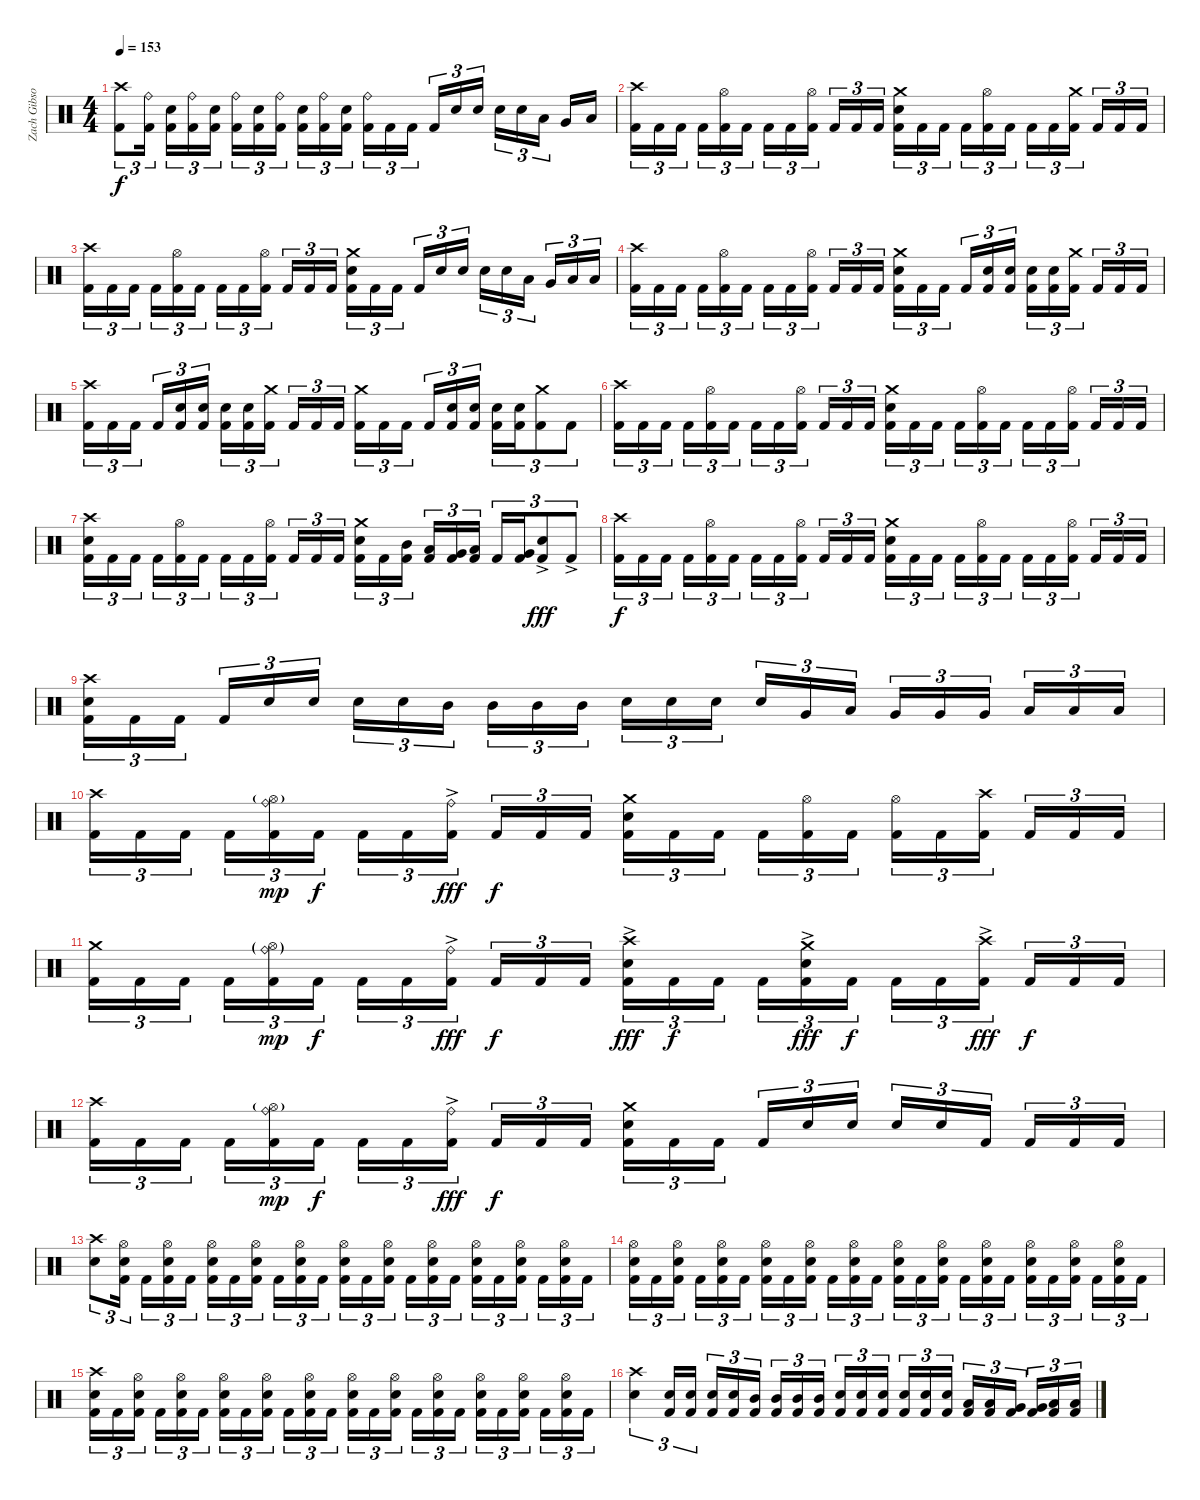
\track ("Zach Gibson (Drums)" "Zach Gibso") {instrument percussion}
\staff {score}
\articulation defaults
\ts (4 4)
\tempo 153
\clef neutral
\ks c
("Crash high (hit)" "Kick (hit) 2").8{tu (3 2) dy f} ("Ride (bell)" "Kick (hit) 2").16{tu (3 2)} ("Snare (hit) 2" "Kick (hit) 2").16{tu (3 2)} ("Ride (bell)" "Kick (hit) 2").16{tu (3 2)} ("Snare (hit) 2" "Kick (hit) 2").16{tu (3 2)} ("Ride (bell)" "Kick (hit) 2").16{tu (3 2)} ("Snare (hit) 2" "Kick (hit) 2").16{tu (3 2)} ("Ride (bell)" "Kick (hit) 2").16{tu (3 2)} ("Snare (hit) 2" "Kick (hit) 2").16{tu (3 2)} ("Ride (bell)" "Kick (hit) 2").16{tu (3 2)} ("Snare (hit) 2" "Kick (hit) 2").16{tu (3 2)} ("Ride (bell)" "Kick (hit) 2").16{tu (3 2)} "Kick (hit) 2".16{tu (3 2)} "Kick (hit) 2".16{tu (3 2)} "Kick (hit) 2".16{tu (3 2)} "Snare (hit) 2".16{tu (3 2)} "Snare (hit) 2".16{tu (3 2)} "Snare (hit) 2".16{tu (3 2)} "Snare (hit) 2".16{tu (3 2)} "Low Tom (hit)".16{tu (3 2)} "Very Low Tom (hit)".16 "Low Floor Tom (hit)".16 |
("Crash high (hit)" "Kick (hit) 2").16{tu (3 2)} "Kick (hit) 2".16{tu (3 2)} "Kick (hit) 2".16{tu (3 2)} "Kick (hit) 2".16{tu (3 2)} ("Hi-Hat (open)" "Kick (hit) 2").16{tu (3 2)} "Kick (hit) 2".16{tu (3 2)} "Kick (hit) 2".16{tu (3 2)} "Kick (hit) 2".16{tu (3 2)} ("Hi-Hat (open)" "Kick (hit) 2").16{tu (3 2)} "Kick (hit) 2".16{tu (3 2)} "Kick (hit) 2".16{tu (3 2)} "Kick (hit) 2".16{tu (3 2)} ("Crash medium (hit)" "Snare (hit) 2" "Kick (hit) 2").16{tu (3 2)} "Kick (hit) 2".16{tu (3 2)} "Kick (hit) 2".16{tu (3 2)} "Kick (hit) 2".16{tu (3 2)} ("Hi-Hat (open)" "Kick (hit) 2").16{tu (3 2)} "Kick (hit) 2".16{tu (3 2)} "Kick (hit) 2".16{tu (3 2)} "Kick (hit) 2".16{tu (3 2)} ("Crash medium (hit)" "Kick (hit) 2").16{tu (3 2)} "Kick (hit) 2".16{tu (3 2)} "Kick (hit) 2".16{tu (3 2)} "Kick (hit) 2".16{tu (3 2)} |
("Crash high (hit)" "Kick (hit) 2").16{tu (3 2)} "Kick (hit) 2".16{tu (3 2)} "Kick (hit) 2".16{tu (3 2)} "Kick (hit) 2".16{tu (3 2)} ("Hi-Hat (open)" "Kick (hit) 2").16{tu (3 2)} "Kick (hit) 2".16{tu (3 2)} "Kick (hit) 2".16{tu (3 2)} "Kick (hit) 2".16{tu (3 2)} ("Hi-Hat (open)" "Kick (hit) 2").16{tu (3 2)} "Kick (hit) 2".16{tu (3 2)} "Kick (hit) 2".16{tu (3 2)} "Kick (hit) 2".16{tu (3 2)} ("Crash medium (hit)" "Snare (hit) 2" "Kick (hit) 2").16{tu (3 2)} "Kick (hit) 2".16{tu (3 2)} "Kick (hit) 2".16{tu (3 2)} "Kick (hit) 2".16{tu (3 2)} "Snare (hit) 2".16{tu (3 2)} "Snare (hit) 2".16{tu (3 2)} "Snare (hit) 2".16{tu (3 2)} "Snare (hit) 2".16{tu (3 2)} "Low Tom (hit)".16{tu (3 2)} "Very Low Tom (hit)".16{tu (3 2)} "Low Floor Tom (hit)".16{tu (3 2)} "Low Floor Tom (hit)".16{tu (3 2)} |
("Crash high (hit)" "Kick (hit) 2").16{tu (3 2)} "Kick (hit) 2".16{tu (3 2)} "Kick (hit) 2".16{tu (3 2)} "Kick (hit) 2".16{tu (3 2)} ("Hi-Hat (open)" "Kick (hit) 2").16{tu (3 2)} "Kick (hit) 2".16{tu (3 2)} "Kick (hit) 2".16{tu (3 2)} "Kick (hit) 2".16{tu (3 2)} ("Hi-Hat (open)" "Kick (hit) 2").16{tu (3 2)} "Kick (hit) 2".16{tu (3 2)} "Kick (hit) 2".16{tu (3 2)} "Kick (hit) 2".16{tu (3 2)} ("Crash medium (hit)" "Snare (hit) 2" "Kick (hit) 2").16{tu (3 2)} "Kick (hit) 2".16{tu (3 2)} "Kick (hit) 2".16{tu (3 2)} "Kick (hit) 2".16{tu (3 2)} ("Snare (hit) 2" "Kick (hit) 2").16{tu (3 2)} ("Snare (hit) 2" "Kick (hit) 2").16{tu (3 2)} ("Snare (hit) 2" "Kick (hit) 2").16{tu (3 2)} ("Snare (hit) 2" "Kick (hit) 2").16{tu (3 2)} ("Crash medium (hit)" "Kick (hit) 2").16{tu (3 2)} "Kick (hit) 2".16{tu (3 2)} "Kick (hit) 2".16{tu (3 2)} "Kick (hit) 2".16{tu (3 2)} |
("Crash high (hit)" "Kick (hit) 2").16{tu (3 2)} "Kick (hit) 2".16{tu (3 2)} "Kick (hit) 2".16{tu (3 2)} "Kick (hit) 2".16{tu (3 2)} ("Snare (hit) 2" "Kick (hit) 2").16{tu (3 2)} ("Snare (hit) 2" "Kick (hit) 2").16{tu (3 2)} ("Snare (hit) 2" "Kick (hit) 2").16{tu (3 2)} ("Snare (hit) 2" "Kick (hit) 2").16{tu (3 2)} ("Crash medium (hit)" "Kick (hit) 2").16{tu (3 2)} "Kick (hit) 2".16{tu (3 2)} "Kick (hit) 2".16{tu (3 2)} "Kick (hit) 2".16{tu (3 2)} ("Crash medium (hit)" "Kick (hit) 2").16{tu (3 2)} "Kick (hit) 2".16{tu (3 2)} "Kick (hit) 2".16{tu (3 2)} "Kick (hit) 2".16{tu (3 2)} ("Snare (hit) 2" "Kick (hit) 2").16{tu (3 2)} ("Snare (hit) 2" "Kick (hit) 2").16{tu (3 2)} ("Snare (hit) 2" "Kick (hit) 2").16{tu (3 2)} ("Snare (hit) 2" "Kick (hit) 2").16{tu (3 2)} ("Crash medium (hit)" "Kick (hit) 2").8{tu (3 2)} "Kick (hit) 2".8{tu (3 2)} |
("Crash high (hit)" "Kick (hit) 2").16{tu (3 2)} "Kick (hit) 2".16{tu (3 2)} "Kick (hit) 2".16{tu (3 2)} "Kick (hit) 2".16{tu (3 2)} ("Hi-Hat (open)" "Kick (hit) 2").16{tu (3 2)} "Kick (hit) 2".16{tu (3 2)} "Kick (hit) 2".16{tu (3 2)} "Kick (hit) 2".16{tu (3 2)} ("Hi-Hat (open)" "Kick (hit) 2").16{tu (3 2)} "Kick (hit) 2".16{tu (3 2)} "Kick (hit) 2".16{tu (3 2)} "Kick (hit) 2".16{tu (3 2)} ("Crash medium (hit)" "Snare (hit) 2" "Kick (hit) 2").16{tu (3 2)} "Kick (hit) 2".16{tu (3 2)} "Kick (hit) 2".16{tu (3 2)} "Kick (hit) 2".16{tu (3 2)} ("Hi-Hat (open)" "Kick (hit) 2").16{tu (3 2)} "Kick (hit) 2".16{tu (3 2)} "Kick (hit) 2".16{tu (3 2)} "Kick (hit) 2".16{tu (3 2)} ("Hi-Hat (open)" "Kick (hit) 2").16{tu (3 2)} "Kick (hit) 2".16{tu (3 2)} "Kick (hit) 2".16{tu (3 2)} "Kick (hit) 2".16{tu (3 2)} |
("Snare (hit) 2" "Crash high (hit)" "Kick (hit) 2").16{tu (3 2)} "Kick (hit) 2".16{tu (3 2)} "Kick (hit) 2".16{tu (3 2)} "Kick (hit) 2".16{tu (3 2)} ("Hi-Hat (open)" "Kick (hit) 2").16{tu (3 2)} "Kick (hit) 2".16{tu (3 2)} "Kick (hit) 2".16{tu (3 2)} "Kick (hit) 2".16{tu (3 2)} ("Hi-Hat (open)" "Kick (hit) 2").16{tu (3 2)} "Kick (hit) 2".16{tu (3 2)} "Kick (hit) 2".16{tu (3 2)} "Kick (hit) 2".16{tu (3 2)} ("Crash medium (hit)" "Snare (hit) 2" "Kick (hit) 2").16{tu (3 2)} "Kick (hit) 2".16{tu (3 2)} ("Mid Tom (hit)" "Kick (hit) 2").16{tu (3 2)} ("Low Tom (hit)" "Kick (hit) 2").16{tu (3 2)} ("Very Low Tom (hit)" "Kick (hit) 2").16{tu (3 2)} ("Low Floor Tom (hit)" "Kick (hit) 2").16{tu (3 2)} "Kick (hit) 2".16{tu (3 2)} ("Very Low Tom (hit)" "Kick (hit) 2").16{tu (3 2)} ("Snare (hit) 2" "Kick (hit) 2"{ac}).8{tu (3 2) dy fff} "Kick (hit) 2"{ac}.8{tu (3 2)} |
("Crash high (hit)" "Kick (hit) 2").16{tu (3 2) dy f} "Kick (hit) 2".16{tu (3 2)} "Kick (hit) 2".16{tu (3 2)} "Kick (hit) 2".16{tu (3 2)} ("Hi-Hat (open)" "Kick (hit) 2").16{tu (3 2)} "Kick (hit) 2".16{tu (3 2)} "Kick (hit) 2".16{tu (3 2)} "Kick (hit) 2".16{tu (3 2)} ("Hi-Hat (open)" "Kick (hit) 2").16{tu (3 2)} "Kick (hit) 2".16{tu (3 2)} "Kick (hit) 2".16{tu (3 2)} "Kick (hit) 2".16{tu (3 2)} ("Crash medium (hit)" "Snare (hit) 2" "Kick (hit) 2").16{tu (3 2)} "Kick (hit) 2".16{tu (3 2)} "Kick (hit) 2".16{tu (3 2)} "Kick (hit) 2".16{tu (3 2)} ("Hi-Hat (open)" "Kick (hit) 2").16{tu (3 2)} "Kick (hit) 2".16{tu (3 2)} "Kick (hit) 2".16{tu (3 2)} "Kick (hit) 2".16{tu (3 2)} ("Hi-Hat (open)" "Kick (hit) 2").16{tu (3 2)} "Kick (hit) 2".16{tu (3 2)} "Kick (hit) 2".16{tu (3 2)} "Kick (hit) 2".16{tu (3 2)} |
("Snare (hit) 2" "Crash high (hit)" "Kick (hit) 2").16{tu (3 2)} "Kick (hit) 2".16{tu (3 2)} "Kick (hit) 2".16{tu (3 2)} "Kick (hit) 2".16{tu (3 2)} "Snare (hit) 2".16{tu (3 2)} "Snare (hit) 2".16{tu (3 2)} "Snare (hit) 2".16{tu (3 2)} "Snare (hit) 2".16{tu (3 2)} "Mid Tom (hit)".16{tu (3 2)} "Mid Tom (hit)".16{tu (3 2)} "Mid Tom (hit)".16{tu (3 2)} "Mid Tom (hit)".16{tu (3 2)} "Snare (hit) 2".16{tu (3 2)} "Snare (hit) 2".16{tu (3 2)} "Snare (hit) 2".16{tu (3 2)} "Snare (hit) 2".16{tu (3 2)} "Very Low Tom (hit)".16{tu (3 2)} "Low Floor Tom (hit)".16{tu (3 2)} "Very Low Tom (hit)".16{tu (3 2)} "Very Low Tom (hit)".16{tu (3 2)} "Very Low Tom (hit)".16{tu (3 2)} "Low Floor Tom (hit)".16{tu (3 2)} "Low Floor Tom (hit)".16{tu (3 2)} "Low Floor Tom (hit)".16{tu (3 2)} |
("Crash high (hit)" "Kick (hit) 2").16{tu (3 2)} "Kick (hit) 2".16{tu (3 2)} "Kick (hit) 2".16{tu (3 2)} "Kick (hit) 2".16{tu (3 2)} ("Ride (bell)" "Hi-Hat (open)"{g} "Kick (hit) 2").16{tu (3 2) dy mp} "Kick (hit) 2".16{tu (3 2) dy f} "Kick (hit) 2".16{tu (3 2)} "Kick (hit) 2".16{tu (3 2)} ("Ride (bell)"{ac} "Kick (hit) 2").16{tu (3 2) dy fff} "Kick (hit) 2".16{tu (3 2) dy f} "Kick (hit) 2".16{tu (3 2)} "Kick (hit) 2".16{tu (3 2)} ("Crash medium (hit)" "Snare (hit) 2" "Kick (hit) 2").16{tu (3 2)} "Kick (hit) 2".16{tu (3 2)} "Kick (hit) 2".16{tu (3 2)} "Kick (hit) 2".16{tu (3 2)} ("Hi-Hat (open)" "Kick (hit) 2").16{tu (3 2)} "Kick (hit) 2".16{tu (3 2)} ("Hi-Hat (open)" "Kick (hit) 2").16{tu (3 2)} "Kick (hit) 2".16{tu (3 2)} ("Crash high (hit)" "Kick (hit) 2").16{tu (3 2)} "Kick (hit) 2".16{tu (3 2)} "Kick (hit) 2".16{tu (3 2)} "Kick (hit) 2".16{tu (3 2)} |
("Crash medium (hit)" "Kick (hit) 2").16{tu (3 2)} "Kick (hit) 2".16{tu (3 2)} "Kick (hit) 2".16{tu (3 2)} "Kick (hit) 2".16{tu (3 2)} ("Ride (bell)"{g} "Hi-Hat (open)"{g} "Kick (hit) 2").16{tu (3 2) dy mp} "Kick (hit) 2".16{tu (3 2) dy f} "Kick (hit) 2".16{tu (3 2)} "Kick (hit) 2".16{tu (3 2)} ("Ride (bell)"{ac} "Kick (hit) 2").16{tu (3 2) dy fff} "Kick (hit) 2".16{tu (3 2) dy f} "Kick (hit) 2".16{tu (3 2)} "Kick (hit) 2".16{tu (3 2)} ("Crash high (hit)"{ac} "Snare (hit) 2"{ac} "Kick (hit) 2").16{tu (3 2) dy fff} "Kick (hit) 2".16{tu (3 2) dy f} "Kick (hit) 2".16{tu (3 2)} "Kick (hit) 2".16{tu (3 2)} ("Crash medium (hit)"{ac} "Snare (hit) 2"{ac} "Kick (hit) 2").16{tu (3 2) dy fff} "Kick (hit) 2".16{tu (3 2) dy f} "Kick (hit) 2".16{tu (3 2)} "Kick (hit) 2".16{tu (3 2)} ("Crash high (hit)"{ac} "Kick (hit) 2").16{tu (3 2) dy fff} "Kick (hit) 2".16{tu (3 2) dy f} "Kick (hit) 2".16{tu (3 2)} "Kick (hit) 2".16{tu (3 2)} |
("Crash high (hit)" "Kick (hit) 2").16{tu (3 2)} "Kick (hit) 2".16{tu (3 2)} "Kick (hit) 2".16{tu (3 2)} "Kick (hit) 2".16{tu (3 2)} ("Ride (bell)" "Hi-Hat (open)"{g} "Kick (hit) 2").16{tu (3 2) dy mp} "Kick (hit) 2".16{tu (3 2) dy f} "Kick (hit) 2".16{tu (3 2)} "Kick (hit) 2".16{tu (3 2)} ("Ride (bell)"{ac} "Kick (hit) 2").16{tu (3 2) dy fff} "Kick (hit) 2".16{tu (3 2) dy f} "Kick (hit) 2".16{tu (3 2)} "Kick (hit) 2".16{tu (3 2)} ("Crash medium (hit)" "Snare (hit) 2" "Kick (hit) 2").16{tu (3 2)} "Kick (hit) 2".16{tu (3 2)} "Kick (hit) 2".16{tu (3 2)} "Kick (hit) 2".16{tu (3 2)} "Snare (hit) 2".16{tu (3 2)} "Snare (hit) 2".16{tu (3 2)} "Snare (hit) 2".16{tu (3 2)} "Snare (hit) 2".16{tu (3 2)} "Kick (hit) 2".16{tu (3 2)} "Kick (hit) 2".16{tu (3 2)} "Kick (hit) 2".16{tu (3 2)} "Kick (hit) 2".16{tu (3 2)} |
("Crash high (hit)" "Snare (hit) 2").8{tu (3 2)} ("Hi-Hat (open)" "Snare (hit) 2" "Kick (hit) 2").16{tu (3 2)} "Kick (hit) 2".16{tu (3 2)} ("Hi-Hat (open)" "Snare (hit) 2" "Kick (hit) 2").16{tu (3 2)} "Kick (hit) 2".16{tu (3 2)} ("Hi-Hat (open)" "Snare (hit) 2" "Kick (hit) 2").16{tu (3 2)} "Kick (hit) 2".16{tu (3 2)} ("Hi-Hat (open)" "Snare (hit) 2" "Kick (hit) 2").16{tu (3 2)} "Kick (hit) 2".16{tu (3 2)} ("Hi-Hat (open)" "Snare (hit) 2" "Kick (hit) 2").16{tu (3 2)} "Kick (hit) 2".16{tu (3 2)} ("Hi-Hat (open)" "Snare (hit) 2" "Kick (hit) 2").16{tu (3 2)} "Kick (hit) 2".16{tu (3 2)} ("Hi-Hat (open)" "Snare (hit) 2" "Kick (hit) 2").16{tu (3 2)} "Kick (hit) 2".16{tu (3 2)} ("Hi-Hat (open)" "Snare (hit) 2" "Kick (hit) 2").16{tu (3 2)} "Kick (hit) 2".16{tu (3 2)} ("Hi-Hat (open)" "Snare (hit) 2" "Kick (hit) 2").16{tu (3 2)} "Kick (hit) 2".16{tu (3 2)} ("Hi-Hat (open)" "Snare (hit) 2" "Kick (hit) 2").16{tu (3 2)} "Kick (hit) 2".16{tu (3 2)} ("Hi-Hat (open)" "Snare (hit) 2" "Kick (hit) 2").16{tu (3 2)} "Kick (hit) 2".16{tu (3 2)} |
("Hi-Hat (open)" "Snare (hit) 2" "Kick (hit) 2").16{tu (3 2)} "Kick (hit) 2".16{tu (3 2)} ("Hi-Hat (open)" "Snare (hit) 2" "Kick (hit) 2").16{tu (3 2)} "Kick (hit) 2".16{tu (3 2)} ("Hi-Hat (open)" "Snare (hit) 2" "Kick (hit) 2").16{tu (3 2)} "Kick (hit) 2".16{tu (3 2)} ("Hi-Hat (open)" "Snare (hit) 2" "Kick (hit) 2").16{tu (3 2)} "Kick (hit) 2".16{tu (3 2)} ("Hi-Hat (open)" "Snare (hit) 2" "Kick (hit) 2").16{tu (3 2)} "Kick (hit) 2".16{tu (3 2)} ("Hi-Hat (open)" "Snare (hit) 2" "Kick (hit) 2").16{tu (3 2)} "Kick (hit) 2".16{tu (3 2)} ("Hi-Hat (open)" "Snare (hit) 2" "Kick (hit) 2").16{tu (3 2)} "Kick (hit) 2".16{tu (3 2)} ("Hi-Hat (open)" "Snare (hit) 2" "Kick (hit) 2").16{tu (3 2)} "Kick (hit) 2".16{tu (3 2)} ("Hi-Hat (open)" "Snare (hit) 2" "Kick (hit) 2").16{tu (3 2)} "Kick (hit) 2".16{tu (3 2)} ("Hi-Hat (open)" "Snare (hit) 2" "Kick (hit) 2").16{tu (3 2)} "Kick (hit) 2".16{tu (3 2)} ("Hi-Hat (open)" "Snare (hit) 2" "Kick (hit) 2").16{tu (3 2)} "Kick (hit) 2".16{tu (3 2)} ("Hi-Hat (open)" "Snare (hit) 2" "Kick (hit) 2").16{tu (3 2)} "Kick (hit) 2".16{tu (3 2)} |
("Crash high (hit)" "Snare (hit) 2" "Kick (hit) 2").16{tu (3 2)} "Kick (hit) 2".16{tu (3 2)} ("Hi-Hat (open)" "Snare (hit) 2" "Kick (hit) 2").16{tu (3 2)} "Kick (hit) 2".16{tu (3 2)} ("Hi-Hat (open)" "Snare (hit) 2" "Kick (hit) 2").16{tu (3 2)} "Kick (hit) 2".16{tu (3 2)} ("Hi-Hat (open)" "Snare (hit) 2" "Kick (hit) 2").16{tu (3 2)} "Kick (hit) 2".16{tu (3 2)} ("Hi-Hat (open)" "Snare (hit) 2" "Kick (hit) 2").16{tu (3 2)} "Kick (hit) 2".16{tu (3 2)} ("Hi-Hat (open)" "Snare (hit) 2" "Kick (hit) 2").16{tu (3 2)} "Kick (hit) 2".16{tu (3 2)} ("Hi-Hat (open)" "Snare (hit) 2" "Kick (hit) 2").16{tu (3 2)} "Kick (hit) 2".16{tu (3 2)} ("Hi-Hat (open)" "Snare (hit) 2" "Kick (hit) 2").16{tu (3 2)} "Kick (hit) 2".16{tu (3 2)} ("Hi-Hat (open)" "Snare (hit) 2" "Kick (hit) 2").16{tu (3 2)} "Kick (hit) 2".16{tu (3 2)} ("Hi-Hat (open)" "Snare (hit) 2" "Kick (hit) 2").16{tu (3 2)} "Kick (hit) 2".16{tu (3 2)} ("Hi-Hat (open)" "Snare (hit) 2" "Kick (hit) 2").16{tu (3 2)} "Kick (hit) 2".16{tu (3 2)} ("Hi-Hat (open)" "Snare (hit) 2" "Kick (hit) 2").16{tu (3 2)} "Kick (hit) 2".16{tu (3 2)} |
("Crash high (hit)" "Snare (hit) 2").4{tu (3 2)} ("Kick (hit) 2" "Snare (hit) 2").16{tu (3 2)} ("Kick (hit) 2" "Snare (hit) 2").16{tu (3 2)} ("Kick (hit) 2" "Snare (hit) 2").16{tu (3 2)} ("Kick (hit) 2" "Snare (hit) 2").16{tu (3 2)} ("Mid Tom (hit)" "Kick (hit) 2").16{tu (3 2)} ("Mid Tom (hit)" "Kick (hit) 2").16{tu (3 2)} ("Mid Tom (hit)" "Kick (hit) 2").16{tu (3 2)} ("Mid Tom (hit)" "Kick (hit) 2").16{tu (3 2)} ("Kick (hit) 2" "Snare (hit) 2").16{tu (3 2)} ("Kick (hit) 2" "Snare (hit) 2").16{tu (3 2)} ("Kick (hit) 2" "Snare (hit) 2").16{tu (3 2)} ("Kick (hit) 2" "Snare (hit) 2").16{tu (3 2)} ("Kick (hit) 2" "Snare (hit) 2").16{tu (3 2)} ("Kick (hit) 2" "Snare (hit) 2").16{tu (3 2)} ("Kick (hit) 2" "Low Tom (hit)").16{tu (3 2)} ("Kick (hit) 2" "Low Tom (hit)").16{tu (3 2)} ("Kick (hit) 2" "Very Low Tom (hit)").16{tu (3 2)} ("Kick (hit) 2" "Very Low Tom (hit)").16{tu (3 2)} ("Kick (hit) 2" "Low Floor Tom (hit)").16{tu (3 2)} ("Kick (hit) 2" "Low Floor Tom (hit)").16{tu (3 2)}
